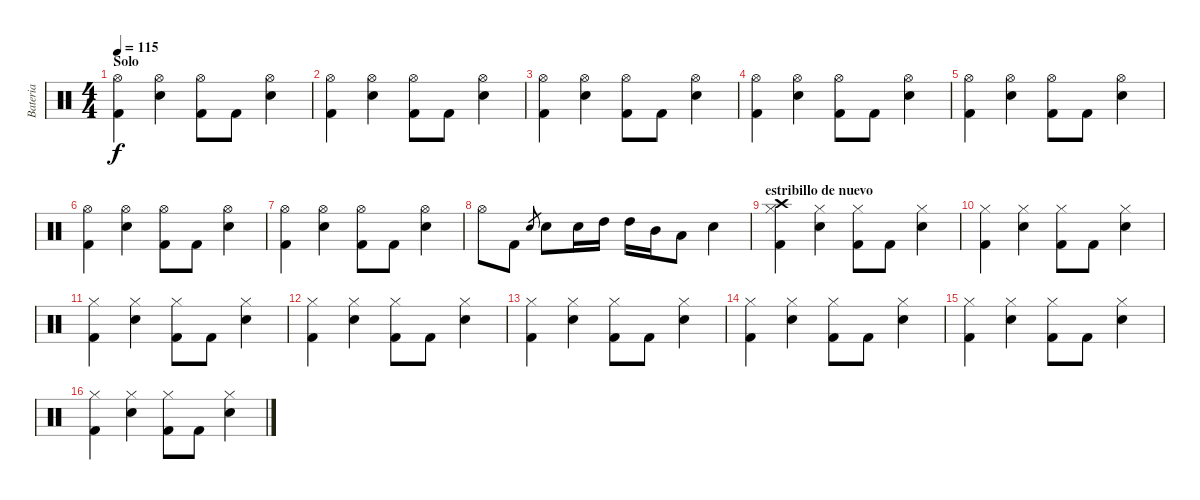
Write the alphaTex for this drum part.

\track ("Bateria" "Bateria") {instrument percussion}
\staff {score}
\articulation defaults
\ts (4 4)
\section ("" "Solo")
\tempo 115
\clef neutral
\ks c
("Hi-Hat (open)" "Kick (hit) 2").4{dy f} ("Hi-Hat (open)" "Electric Snare (hit)").4 ("Hi-Hat (open)" "Kick (hit) 2").8 "Kick (hit) 2".8 ("Hi-Hat (open)" "Electric Snare (hit)").4 |
("Hi-Hat (open)" "Kick (hit) 2").4 ("Hi-Hat (open)" "Electric Snare (hit)").4 ("Hi-Hat (open)" "Kick (hit) 2").8 "Kick (hit) 2".8 ("Hi-Hat (open)" "Electric Snare (hit)").4 |
("Hi-Hat (open)" "Kick (hit) 2").4 ("Hi-Hat (open)" "Electric Snare (hit)").4 ("Hi-Hat (open)" "Kick (hit) 2").8 "Kick (hit) 2".8 ("Hi-Hat (open)" "Electric Snare (hit)").4 |
("Hi-Hat (open)" "Kick (hit) 2").4 ("Hi-Hat (open)" "Electric Snare (hit)").4 ("Hi-Hat (open)" "Kick (hit) 2").8 "Kick (hit) 2".8 ("Hi-Hat (open)" "Electric Snare (hit)").4 |
("Hi-Hat (open)" "Kick (hit) 2").4 ("Hi-Hat (open)" "Electric Snare (hit)").4 ("Hi-Hat (open)" "Kick (hit) 2").8 "Kick (hit) 2".8 ("Hi-Hat (open)" "Electric Snare (hit)").4 |
("Hi-Hat (open)" "Kick (hit) 2").4 ("Hi-Hat (open)" "Electric Snare (hit)").4 ("Hi-Hat (open)" "Kick (hit) 2").8 "Kick (hit) 2".8 ("Hi-Hat (open)" "Electric Snare (hit)").4 |
("Hi-Hat (open)" "Kick (hit) 2").4 ("Hi-Hat (open)" "Electric Snare (hit)").4 ("Hi-Hat (open)" "Kick (hit) 2").8 "Kick (hit) 2".8 ("Hi-Hat (open)" "Electric Snare (hit)").4 |
"Hi-Hat (open)".8 "Kick (hit) 2".8 "Electric Snare (hit)".8{gr} "Electric Snare (hit)".8 "Electric Snare (hit)".16 "High Tom (hit)".16 "High Tom (hit)".16 "Mid Tom (hit)".16 "Low Tom (hit)".8 "Electric Snare (hit)".4 |
\section ("" "estribillo de nuevo")
("Crash high (hit)" "Hi-Hat (closed)" "Kick (hit) 2").4 ("Hi-Hat (closed)" "Electric Snare (hit)").4 ("Hi-Hat (closed)" "Kick (hit) 2").8 "Kick (hit) 2".8 ("Hi-Hat (closed)" "Electric Snare (hit)").4 |
("Hi-Hat (closed)" "Kick (hit) 2").4 ("Hi-Hat (closed)" "Electric Snare (hit)").4 ("Hi-Hat (closed)" "Kick (hit) 2").8 "Kick (hit) 2".8 ("Hi-Hat (closed)" "Electric Snare (hit)").4 |
("Hi-Hat (closed)" "Kick (hit) 2").4 ("Hi-Hat (closed)" "Electric Snare (hit)").4 ("Hi-Hat (closed)" "Kick (hit) 2").8 "Kick (hit) 2".8 ("Hi-Hat (closed)" "Electric Snare (hit)").4 |
("Hi-Hat (closed)" "Kick (hit) 2").4 ("Hi-Hat (closed)" "Electric Snare (hit)").4 ("Hi-Hat (closed)" "Kick (hit) 2").8 "Kick (hit) 2".8 ("Hi-Hat (closed)" "Electric Snare (hit)").4 |
("Hi-Hat (closed)" "Kick (hit) 2").4 ("Hi-Hat (closed)" "Electric Snare (hit)").4 ("Hi-Hat (closed)" "Kick (hit) 2").8 "Kick (hit) 2".8 ("Hi-Hat (closed)" "Electric Snare (hit)").4 |
("Hi-Hat (closed)" "Kick (hit) 2").4 ("Hi-Hat (closed)" "Electric Snare (hit)").4 ("Hi-Hat (closed)" "Kick (hit) 2").8 "Kick (hit) 2".8 ("Hi-Hat (closed)" "Electric Snare (hit)").4 |
("Hi-Hat (closed)" "Kick (hit) 2").4 ("Hi-Hat (closed)" "Electric Snare (hit)").4 ("Hi-Hat (closed)" "Kick (hit) 2").8 "Kick (hit) 2".8 ("Hi-Hat (closed)" "Electric Snare (hit)").4 |
("Hi-Hat (closed)" "Kick (hit) 2").4 ("Hi-Hat (closed)" "Electric Snare (hit)").4 ("Hi-Hat (closed)" "Kick (hit) 2").8 "Kick (hit) 2".8 ("Hi-Hat (closed)" "Electric Snare (hit)").4
